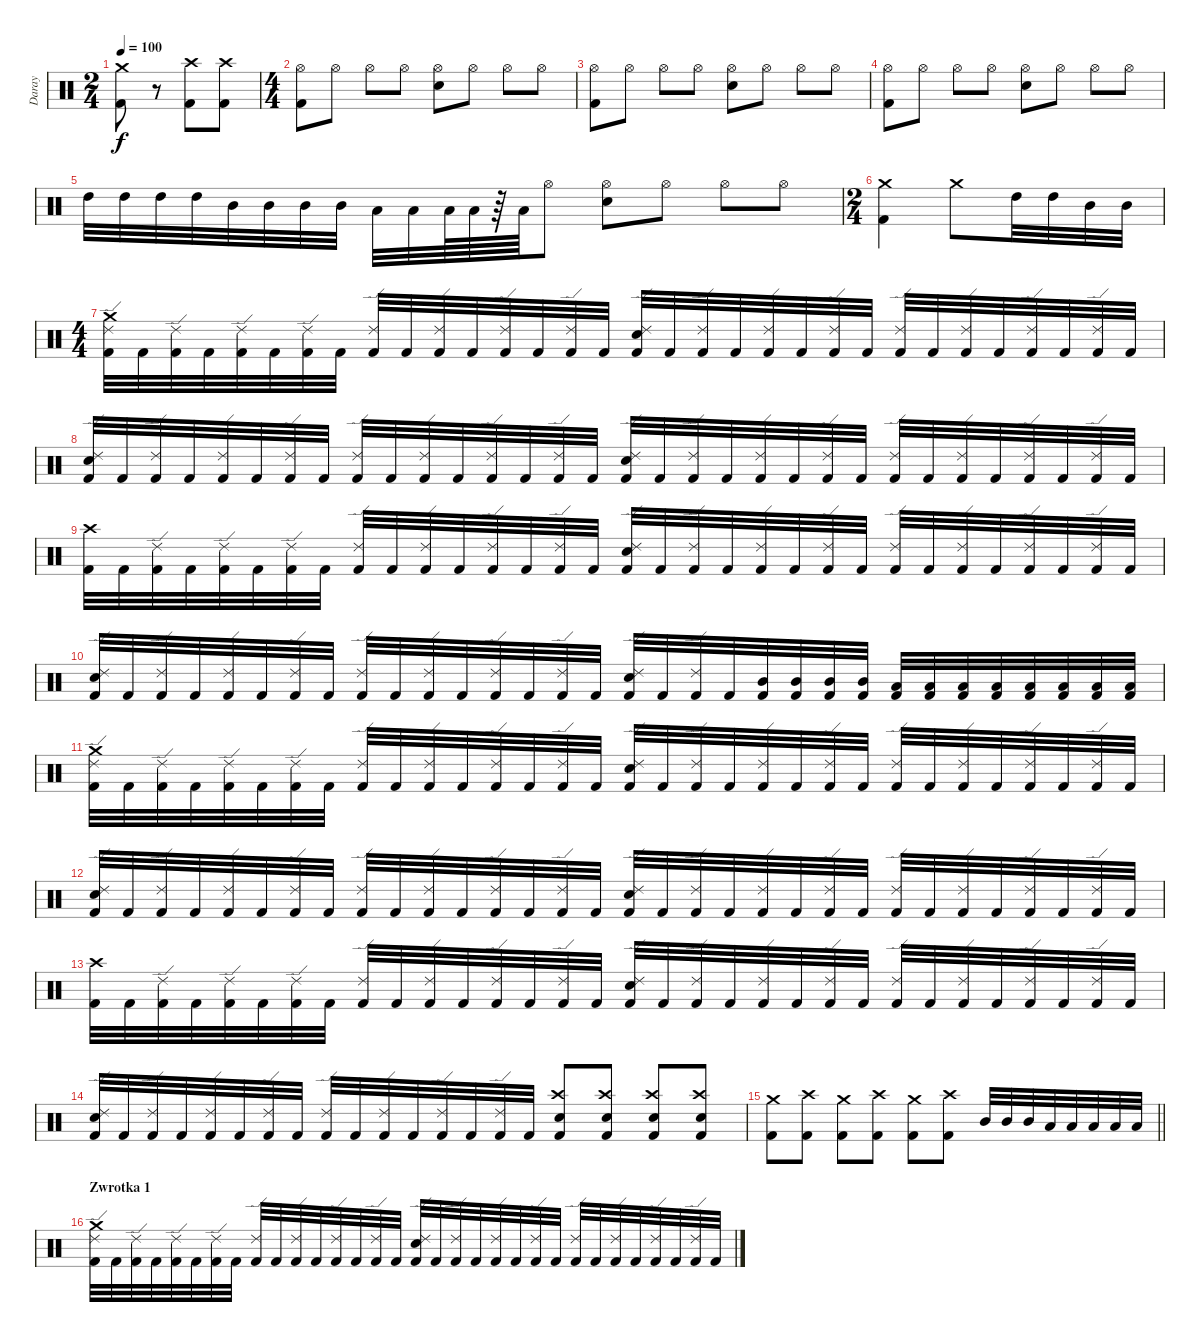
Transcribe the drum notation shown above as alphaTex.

\track ("Daray" "Daray") {instrument percussion}
\staff {score}
\articulation defaults
\ts (2 4)
\tempo 100
\clef neutral
\ks c
("Crash medium (hit)" "Kick (hit) 2").8{dy f} r.8 ("Crash high (hit)" "Kick (hit) 2").8 ("Crash high (hit)" "Kick (hit) 2").8 |
\ts (4 4)
("Hi-Hat (open)" "Kick (hit) 2").8 "Hi-Hat (open)".8 "Hi-Hat (open)".8 "Hi-Hat (open)".8 ("Hi-Hat (open)" "Electric Snare (hit)").8 "Hi-Hat (open)".8 "Hi-Hat (open)".8 "Hi-Hat (open)".8 |
("Hi-Hat (open)" "Kick (hit) 2").8 "Hi-Hat (open)".8 "Hi-Hat (open)".8 "Hi-Hat (open)".8 ("Hi-Hat (open)" "Electric Snare (hit)").8 "Hi-Hat (open)".8 "Hi-Hat (open)".8 "Hi-Hat (open)".8 |
("Hi-Hat (open)" "Kick (hit) 2").8 "Hi-Hat (open)".8 "Hi-Hat (open)".8 "Hi-Hat (open)".8 ("Hi-Hat (open)" "Electric Snare (hit)").8 "Hi-Hat (open)".8 "Hi-Hat (open)".8 "Hi-Hat (open)".8 |
"High Tom (hit)".32 "High Tom (hit)".32 "High Tom (hit)".32 "High Tom (hit)".32 "Mid Tom (hit)".32 "Mid Tom (hit)".32 "Mid Tom (hit)".32 "Mid Tom (hit)".32 "Low Tom (hit)".32 "Low Tom (hit)".32 "Low Tom (hit)".64 "Low Tom (hit)".64 r.64 "Low Tom (hit)".64 "Hi-Hat (open)".8 ("Hi-Hat (open)" "Electric Snare (hit)").8 "Hi-Hat (open)".8 "Hi-Hat (open)".8 "Hi-Hat (open)".8 |
\ts (2 4)
("Crash medium (hit)" "Kick (hit) 2").4 "Crash medium (hit)".8 "High Tom (hit)".32 "High Tom (hit)".32 "Mid Tom (hit)".32 "Mid Tom (hit)".32 |
\ts (4 4)
("Ride (edge) 2" "Crash medium (hit)" "Kick (hit) 2").32 "Kick (hit) 2".32 ("Ride (edge) 2" "Kick (hit) 2").32 "Kick (hit) 2".32 ("Ride (edge) 2" "Kick (hit) 2").32 "Kick (hit) 2".32 ("Ride (edge) 2" "Kick (hit) 2").32 "Kick (hit) 2".32 ("Ride (edge) 2" "Kick (hit) 2").32 "Kick (hit) 2".32 ("Ride (edge) 2" "Kick (hit) 2").32 "Kick (hit) 2".32 ("Ride (edge) 2" "Kick (hit) 2").32 "Kick (hit) 2".32 ("Ride (edge) 2" "Kick (hit) 2").32 "Kick (hit) 2".32 ("Snare (hit) 2" "Ride (edge) 2" "Kick (hit) 2").32 "Kick (hit) 2".32 ("Ride (edge) 2" "Kick (hit) 2").32 "Kick (hit) 2".32 ("Ride (edge) 2" "Kick (hit) 2").32 "Kick (hit) 2".32 ("Ride (edge) 2" "Kick (hit) 2").32 "Kick (hit) 2".32 ("Ride (edge) 2" "Kick (hit) 2").32 "Kick (hit) 2".32 ("Ride (edge) 2" "Kick (hit) 2").32 "Kick (hit) 2".32 ("Ride (edge) 2" "Kick (hit) 2").32 "Kick (hit) 2".32 ("Ride (edge) 2" "Kick (hit) 2").32 "Kick (hit) 2".32 |
("Snare (hit) 2" "Ride (edge) 2" "Kick (hit) 2").32 "Kick (hit) 2".32 ("Ride (edge) 2" "Kick (hit) 2").32 "Kick (hit) 2".32 ("Ride (edge) 2" "Kick (hit) 2").32 "Kick (hit) 2".32 ("Ride (edge) 2" "Kick (hit) 2").32 "Kick (hit) 2".32 ("Ride (edge) 2" "Kick (hit) 2").32 "Kick (hit) 2".32 ("Ride (edge) 2" "Kick (hit) 2").32 "Kick (hit) 2".32 ("Ride (edge) 2" "Kick (hit) 2").32 "Kick (hit) 2".32 ("Ride (edge) 2" "Kick (hit) 2").32 "Kick (hit) 2".32 ("Snare (hit) 2" "Ride (edge) 2" "Kick (hit) 2").32 "Kick (hit) 2".32 ("Ride (edge) 2" "Kick (hit) 2").32 "Kick (hit) 2".32 ("Ride (edge) 2" "Kick (hit) 2").32 "Kick (hit) 2".32 ("Ride (edge) 2" "Kick (hit) 2").32 "Kick (hit) 2".32 ("Ride (edge) 2" "Kick (hit) 2").32 "Kick (hit) 2".32 ("Ride (edge) 2" "Kick (hit) 2").32 "Kick (hit) 2".32 ("Ride (edge) 2" "Kick (hit) 2").32 "Kick (hit) 2".32 ("Ride (edge) 2" "Kick (hit) 2").32 "Kick (hit) 2".32 |
("Crash high (hit)" "Kick (hit) 2").32 "Kick (hit) 2".32 ("Ride (edge) 2" "Kick (hit) 2").32 "Kick (hit) 2".32 ("Ride (edge) 2" "Kick (hit) 2").32 "Kick (hit) 2".32 ("Ride (edge) 2" "Kick (hit) 2").32 "Kick (hit) 2".32 ("Ride (edge) 2" "Kick (hit) 2").32 "Kick (hit) 2".32 ("Ride (edge) 2" "Kick (hit) 2").32 "Kick (hit) 2".32 ("Ride (edge) 2" "Kick (hit) 2").32 "Kick (hit) 2".32 ("Ride (edge) 2" "Kick (hit) 2").32 "Kick (hit) 2".32 ("Snare (hit) 2" "Ride (edge) 2" "Kick (hit) 2").32 "Kick (hit) 2".32 ("Ride (edge) 2" "Kick (hit) 2").32 "Kick (hit) 2".32 ("Ride (edge) 2" "Kick (hit) 2").32 "Kick (hit) 2".32 ("Ride (edge) 2" "Kick (hit) 2").32 "Kick (hit) 2".32 ("Ride (edge) 2" "Kick (hit) 2").32 "Kick (hit) 2".32 ("Ride (edge) 2" "Kick (hit) 2").32 "Kick (hit) 2".32 ("Ride (edge) 2" "Kick (hit) 2").32 "Kick (hit) 2".32 ("Ride (edge) 2" "Kick (hit) 2").32 "Kick (hit) 2".32 |
("Snare (hit) 2" "Ride (edge) 2" "Kick (hit) 2").32 "Kick (hit) 2".32 ("Ride (edge) 2" "Kick (hit) 2").32 "Kick (hit) 2".32 ("Ride (edge) 2" "Kick (hit) 2").32 "Kick (hit) 2".32 ("Ride (edge) 2" "Kick (hit) 2").32 "Kick (hit) 2".32 ("Ride (edge) 2" "Kick (hit) 2").32 "Kick (hit) 2".32 ("Ride (edge) 2" "Kick (hit) 2").32 "Kick (hit) 2".32 ("Ride (edge) 2" "Kick (hit) 2").32 "Kick (hit) 2".32 ("Ride (edge) 2" "Kick (hit) 2").32 "Kick (hit) 2".32 ("Snare (hit) 2" "Ride (edge) 2" "Kick (hit) 2").32 "Kick (hit) 2".32 ("Ride (edge) 2" "Kick (hit) 2").32 "Kick (hit) 2".32 ("Mid Tom (hit)" "Kick (hit) 2").32 ("Mid Tom (hit)" "Kick (hit) 2").32 ("Mid Tom (hit)" "Kick (hit) 2").32 ("Mid Tom (hit)" "Kick (hit) 2").32 ("Low Tom (hit)" "Kick (hit) 2").32 ("Low Tom (hit)" "Kick (hit) 2").32 ("Low Tom (hit)" "Kick (hit) 2").32 ("Low Tom (hit)" "Kick (hit) 2").32 ("Low Tom (hit)" "Kick (hit) 2").32 ("Low Tom (hit)" "Kick (hit) 2").32 ("Low Floor Tom (hit)" "Kick (hit) 2").32 ("Low Floor Tom (hit)" "Kick (hit) 2").32 |
("Ride (edge) 2" "Crash medium (hit)" "Kick (hit) 2").32 "Kick (hit) 2".32 ("Ride (edge) 2" "Kick (hit) 2").32 "Kick (hit) 2".32 ("Ride (edge) 2" "Kick (hit) 2").32 "Kick (hit) 2".32 ("Ride (edge) 2" "Kick (hit) 2").32 "Kick (hit) 2".32 ("Ride (edge) 2" "Kick (hit) 2").32 "Kick (hit) 2".32 ("Ride (edge) 2" "Kick (hit) 2").32 "Kick (hit) 2".32 ("Ride (edge) 2" "Kick (hit) 2").32 "Kick (hit) 2".32 ("Ride (edge) 2" "Kick (hit) 2").32 "Kick (hit) 2".32 ("Snare (hit) 2" "Ride (edge) 2" "Kick (hit) 2").32 "Kick (hit) 2".32 ("Ride (edge) 2" "Kick (hit) 2").32 "Kick (hit) 2".32 ("Ride (edge) 2" "Kick (hit) 2").32 "Kick (hit) 2".32 ("Ride (edge) 2" "Kick (hit) 2").32 "Kick (hit) 2".32 ("Ride (edge) 2" "Kick (hit) 2").32 "Kick (hit) 2".32 ("Ride (edge) 2" "Kick (hit) 2").32 "Kick (hit) 2".32 ("Ride (edge) 2" "Kick (hit) 2").32 "Kick (hit) 2".32 ("Ride (edge) 2" "Kick (hit) 2").32 "Kick (hit) 2".32 |
("Snare (hit) 2" "Ride (edge) 2" "Kick (hit) 2").32 "Kick (hit) 2".32 ("Ride (edge) 2" "Kick (hit) 2").32 "Kick (hit) 2".32 ("Ride (edge) 2" "Kick (hit) 2").32 "Kick (hit) 2".32 ("Ride (edge) 2" "Kick (hit) 2").32 "Kick (hit) 2".32 ("Ride (edge) 2" "Kick (hit) 2").32 "Kick (hit) 2".32 ("Ride (edge) 2" "Kick (hit) 2").32 "Kick (hit) 2".32 ("Ride (edge) 2" "Kick (hit) 2").32 "Kick (hit) 2".32 ("Ride (edge) 2" "Kick (hit) 2").32 "Kick (hit) 2".32 ("Snare (hit) 2" "Ride (edge) 2" "Kick (hit) 2").32 "Kick (hit) 2".32 ("Ride (edge) 2" "Kick (hit) 2").32 "Kick (hit) 2".32 ("Ride (edge) 2" "Kick (hit) 2").32 "Kick (hit) 2".32 ("Ride (edge) 2" "Kick (hit) 2").32 "Kick (hit) 2".32 ("Ride (edge) 2" "Kick (hit) 2").32 "Kick (hit) 2".32 ("Ride (edge) 2" "Kick (hit) 2").32 "Kick (hit) 2".32 ("Ride (edge) 2" "Kick (hit) 2").32 "Kick (hit) 2".32 ("Ride (edge) 2" "Kick (hit) 2").32 "Kick (hit) 2".32 |
("Crash high (hit)" "Kick (hit) 2").32 "Kick (hit) 2".32 ("Ride (edge) 2" "Kick (hit) 2").32 "Kick (hit) 2".32 ("Ride (edge) 2" "Kick (hit) 2").32 "Kick (hit) 2".32 ("Ride (edge) 2" "Kick (hit) 2").32 "Kick (hit) 2".32 ("Ride (edge) 2" "Kick (hit) 2").32 "Kick (hit) 2".32 ("Ride (edge) 2" "Kick (hit) 2").32 "Kick (hit) 2".32 ("Ride (edge) 2" "Kick (hit) 2").32 "Kick (hit) 2".32 ("Ride (edge) 2" "Kick (hit) 2").32 "Kick (hit) 2".32 ("Snare (hit) 2" "Ride (edge) 2" "Kick (hit) 2").32 "Kick (hit) 2".32 ("Ride (edge) 2" "Kick (hit) 2").32 "Kick (hit) 2".32 ("Ride (edge) 2" "Kick (hit) 2").32 "Kick (hit) 2".32 ("Ride (edge) 2" "Kick (hit) 2").32 "Kick (hit) 2".32 ("Ride (edge) 2" "Kick (hit) 2").32 "Kick (hit) 2".32 ("Ride (edge) 2" "Kick (hit) 2").32 "Kick (hit) 2".32 ("Ride (edge) 2" "Kick (hit) 2").32 "Kick (hit) 2".32 ("Ride (edge) 2" "Kick (hit) 2").32 "Kick (hit) 2".32 |
("Snare (hit) 2" "Ride (edge) 2" "Kick (hit) 2").32 "Kick (hit) 2".32 ("Ride (edge) 2" "Kick (hit) 2").32 "Kick (hit) 2".32 ("Ride (edge) 2" "Kick (hit) 2").32 "Kick (hit) 2".32 ("Ride (edge) 2" "Kick (hit) 2").32 "Kick (hit) 2".32 ("Ride (edge) 2" "Kick (hit) 2").32 "Kick (hit) 2".32 ("Ride (edge) 2" "Kick (hit) 2").32 "Kick (hit) 2".32 ("Ride (edge) 2" "Kick (hit) 2").32 "Kick (hit) 2".32 ("Ride (edge) 2" "Kick (hit) 2").32 "Kick (hit) 2".32 ("Crash high (hit)" "Snare (hit) 2" "Kick (hit) 2").8 ("Crash high (hit)" "Snare (hit) 2" "Kick (hit) 2").8 ("Crash high (hit)" "Snare (hit) 2" "Kick (hit) 2").8 ("Crash high (hit)" "Snare (hit) 2" "Kick (hit) 2").8 |
\barLineRight lightlight
("Crash medium (hit)" "Kick (hit) 2").8 ("Crash high (hit)" "Kick (hit) 2").8 ("Crash medium (hit)" "Kick (hit) 2").8 ("Crash high (hit)" "Kick (hit) 2").8 ("Crash medium (hit)" "Kick (hit) 2").8 ("Crash high (hit)" "Kick (hit) 2").8 "Mid Tom (hit)".32 "Mid Tom (hit)".32 "Mid Tom (hit)".32 "Low Tom (hit)".32 "Low Tom (hit)".32 "Low Tom (hit)".32 "Low Floor Tom (hit)".32 "Low Floor Tom (hit)".32 |
\section ("" "Zwrotka 1")
("Ride (edge) 2" "Crash medium (hit)" "Kick (hit) 2").32 "Kick (hit) 2".32 ("Ride (edge) 2" "Kick (hit) 2").32 "Kick (hit) 2".32 ("Ride (edge) 2" "Kick (hit) 2").32 "Kick (hit) 2".32 ("Ride (edge) 2" "Kick (hit) 2").32 "Kick (hit) 2".32 ("Ride (edge) 2" "Kick (hit) 2").32 "Kick (hit) 2".32 ("Ride (edge) 2" "Kick (hit) 2").32 "Kick (hit) 2".32 ("Ride (edge) 2" "Kick (hit) 2").32 "Kick (hit) 2".32 ("Ride (edge) 2" "Kick (hit) 2").32 "Kick (hit) 2".32 ("Snare (hit) 2" "Ride (edge) 2" "Kick (hit) 2").32 "Kick (hit) 2".32 ("Ride (edge) 2" "Kick (hit) 2").32 "Kick (hit) 2".32 ("Ride (edge) 2" "Kick (hit) 2").32 "Kick (hit) 2".32 ("Ride (edge) 2" "Kick (hit) 2").32 "Kick (hit) 2".32 ("Ride (edge) 2" "Kick (hit) 2").32 "Kick (hit) 2".32 ("Ride (edge) 2" "Kick (hit) 2").32 "Kick (hit) 2".32 ("Ride (edge) 2" "Kick (hit) 2").32 "Kick (hit) 2".32 ("Ride (edge) 2" "Kick (hit) 2").32 "Kick (hit) 2".32
